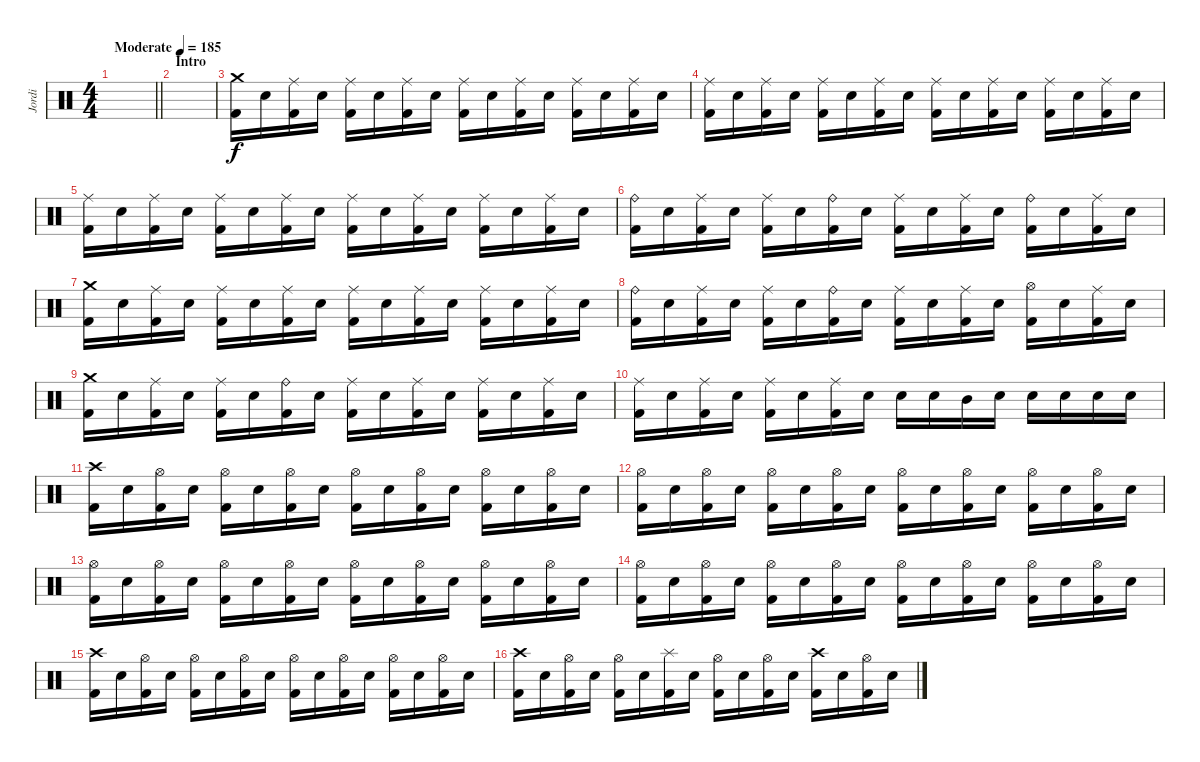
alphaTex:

\track ("Jordi" "Jordi") {instrument percussion}
\staff {score}
\articulation defaults
\ts (4 4)
\tempo (185 "Moderate")
\clef neutral
\barLineRight lightlight
\ks c
|
\section ("" "Intro ")
|
("Crash medium (hit)" "Kick (hit) 2").16 "Snare (hit) 2".16{dy f} ("Ride (middle)" "Kick (hit) 2").16 "Snare (hit) 2".16 ("Ride (middle)" "Kick (hit) 2").16 "Snare (hit) 2".16 ("Ride (middle)" "Kick (hit) 2").16 "Snare (hit) 2".16 ("Ride (middle)" "Kick (hit) 2").16 "Snare (hit) 2".16 ("Ride (middle)" "Kick (hit) 2").16 "Snare (hit) 2".16 ("Ride (middle)" "Kick (hit) 2").16 "Snare (hit) 2".16 ("Ride (middle)" "Kick (hit) 2").16 "Snare (hit) 2".16 |
("Ride (middle)" "Kick (hit) 2").16 "Snare (hit) 2".16 ("Ride (middle)" "Kick (hit) 2").16 "Snare (hit) 2".16 ("Ride (middle)" "Kick (hit) 2").16 "Snare (hit) 2".16 ("Ride (middle)" "Kick (hit) 2").16 "Snare (hit) 2".16 ("Ride (middle)" "Kick (hit) 2").16 "Snare (hit) 2".16 ("Ride (middle)" "Kick (hit) 2").16 "Snare (hit) 2".16 ("Ride (middle)" "Kick (hit) 2").16 "Snare (hit) 2".16 ("Ride (middle)" "Kick (hit) 2").16 "Snare (hit) 2".16 |
("Ride (middle)" "Kick (hit) 2").16 "Snare (hit) 2".16 ("Ride (middle)" "Kick (hit) 2").16 "Snare (hit) 2".16 ("Ride (middle)" "Kick (hit) 2").16 "Snare (hit) 2".16 ("Ride (middle)" "Kick (hit) 2").16 "Snare (hit) 2".16 ("Ride (middle)" "Kick (hit) 2").16 "Snare (hit) 2".16 ("Ride (middle)" "Kick (hit) 2").16 "Snare (hit) 2".16 ("Ride (middle)" "Kick (hit) 2").16 "Snare (hit) 2".16 ("Ride (middle)" "Kick (hit) 2").16 "Snare (hit) 2".16 |
("Ride (bell)" "Kick (hit) 2").16 "Snare (hit) 2".16 ("Ride (middle)" "Kick (hit) 2").16 "Snare (hit) 2".16 ("Ride (middle)" "Kick (hit) 2").16 "Snare (hit) 2".16 ("Ride (bell)" "Kick (hit) 2").16 "Snare (hit) 2".16 ("Ride (middle)" "Kick (hit) 2").16 "Snare (hit) 2".16 ("Ride (middle)" "Kick (hit) 2").16 "Snare (hit) 2".16 ("Ride (bell)" "Kick (hit) 2").16 "Snare (hit) 2".16 ("Ride (middle)" "Kick (hit) 2").16 "Snare (hit) 2".16 |
("Crash medium (hit)" "Kick (hit) 2").16 "Snare (hit) 2".16 ("Ride (middle)" "Kick (hit) 2").16 "Snare (hit) 2".16 ("Ride (middle)" "Kick (hit) 2").16 "Snare (hit) 2".16 ("Ride (middle)" "Kick (hit) 2").16 "Snare (hit) 2".16 ("Ride (middle)" "Kick (hit) 2").16 "Snare (hit) 2".16 ("Ride (middle)" "Kick (hit) 2").16 "Snare (hit) 2".16 ("Ride (middle)" "Kick (hit) 2").16 "Snare (hit) 2".16 ("Ride (middle)" "Kick (hit) 2").16 "Snare (hit) 2".16 |
("Ride (bell)" "Kick (hit) 2").16 "Snare (hit) 2".16 ("Ride (middle)" "Kick (hit) 2").16 "Snare (hit) 2".16 ("Ride (middle)" "Kick (hit) 2").16 "Snare (hit) 2".16 ("Ride (bell)" "Kick (hit) 2").16 "Snare (hit) 2".16 ("Ride (middle)" "Kick (hit) 2").16 "Snare (hit) 2".16 ("Ride (middle)" "Kick (hit) 2").16 "Snare (hit) 2".16 ("Hi-Hat (open)" "Kick (hit) 2").16 "Snare (hit) 2".16 ("Ride (middle)" "Kick (hit) 2").16 "Snare (hit) 2".16 |
("Crash medium (hit)" "Kick (hit) 2").16 "Snare (hit) 2".16 ("Ride (middle)" "Kick (hit) 2").16 "Snare (hit) 2".16 ("Ride (middle)" "Kick (hit) 2").16 "Snare (hit) 2".16 ("Ride (bell)" "Kick (hit) 2").16 "Snare (hit) 2".16 ("Ride (middle)" "Kick (hit) 2").16 "Snare (hit) 2".16 ("Ride (middle)" "Kick (hit) 2").16 "Snare (hit) 2".16 ("Ride (middle)" "Kick (hit) 2").16 "Snare (hit) 2".16 ("Ride (middle)" "Kick (hit) 2").16 "Snare (hit) 2".16 |
("Ride (middle)" "Kick (hit) 2").16 "Snare (hit) 2".16 ("Ride (middle)" "Kick (hit) 2").16 "Snare (hit) 2".16 ("Ride (middle)" "Kick (hit) 2").16 "Snare (hit) 2".16 ("Ride (middle)" "Kick (hit) 2").16 "Snare (hit) 2".16 "Snare (hit) 2".16 "Snare (hit) 2".16 "Mid Tom (hit)".16 "Snare (hit) 2".16 "Snare (hit) 2".16 "Snare (hit) 2".16 "Snare (hit) 2".16 "Snare (hit) 2".16 |
("Crash high (hit)" "Kick (hit) 2").16 "Snare (hit) 2".16 ("Hi-Hat (open)" "Kick (hit) 2").16 "Snare (hit) 2".16 ("Hi-Hat (open)" "Kick (hit) 2").16 "Snare (hit) 2".16 ("Hi-Hat (open)" "Kick (hit) 2").16 "Snare (hit) 2".16 ("Hi-Hat (open)" "Kick (hit) 2").16 "Snare (hit) 2".16 ("Hi-Hat (open)" "Kick (hit) 2").16 "Snare (hit) 2".16 ("Hi-Hat (open)" "Kick (hit) 2").16 "Snare (hit) 2".16 ("Hi-Hat (open)" "Kick (hit) 2").16 "Snare (hit) 2".16 |
("Hi-Hat (open)" "Kick (hit) 2").16 "Snare (hit) 2".16 ("Hi-Hat (open)" "Kick (hit) 2").16 "Snare (hit) 2".16 ("Hi-Hat (open)" "Kick (hit) 2").16 "Snare (hit) 2".16 ("Hi-Hat (open)" "Kick (hit) 2").16 "Snare (hit) 2".16 ("Hi-Hat (open)" "Kick (hit) 2").16 "Snare (hit) 2".16 ("Hi-Hat (open)" "Kick (hit) 2").16 "Snare (hit) 2".16 ("Hi-Hat (open)" "Kick (hit) 2").16 "Snare (hit) 2".16 ("Hi-Hat (open)" "Kick (hit) 2").16 "Snare (hit) 2".16 |
("Hi-Hat (open)" "Kick (hit) 2").16 "Snare (hit) 2".16 ("Hi-Hat (open)" "Kick (hit) 2").16 "Snare (hit) 2".16 ("Hi-Hat (open)" "Kick (hit) 2").16 "Snare (hit) 2".16 ("Hi-Hat (open)" "Kick (hit) 2").16 "Snare (hit) 2".16 ("Hi-Hat (open)" "Kick (hit) 2").16 "Snare (hit) 2".16 ("Hi-Hat (open)" "Kick (hit) 2").16 "Snare (hit) 2".16 ("Hi-Hat (open)" "Kick (hit) 2").16 "Snare (hit) 2".16 ("Hi-Hat (open)" "Kick (hit) 2").16 "Snare (hit) 2".16 |
("Hi-Hat (open)" "Kick (hit) 2").16 "Snare (hit) 2".16 ("Hi-Hat (open)" "Kick (hit) 2").16 "Snare (hit) 2".16 ("Hi-Hat (open)" "Kick (hit) 2").16 "Snare (hit) 2".16 ("Hi-Hat (open)" "Kick (hit) 2").16 "Snare (hit) 2".16 ("Hi-Hat (open)" "Kick (hit) 2").16 "Snare (hit) 2".16 ("Hi-Hat (open)" "Kick (hit) 2").16 "Snare (hit) 2".16 ("Hi-Hat (open)" "Kick (hit) 2").16 "Snare (hit) 2".16 ("Hi-Hat (open)" "Kick (hit) 2").16 "Snare (hit) 2".16 |
("Crash high (hit)" "Kick (hit) 2").16 "Snare (hit) 2".16 ("Hi-Hat (open)" "Kick (hit) 2").16 "Snare (hit) 2".16 ("Hi-Hat (open)" "Kick (hit) 2").16 "Snare (hit) 2".16 ("Hi-Hat (open)" "Kick (hit) 2").16 "Snare (hit) 2".16 ("Hi-Hat (open)" "Kick (hit) 2").16 "Snare (hit) 2".16 ("Hi-Hat (open)" "Kick (hit) 2").16 "Snare (hit) 2".16 ("Hi-Hat (open)" "Kick (hit) 2").16 "Snare (hit) 2".16 ("Hi-Hat (open)" "Kick (hit) 2").16 "Snare (hit) 2".16 |
("Crash high (hit)" "Kick (hit) 2").16 "Snare (hit) 2".16 ("Hi-Hat (open)" "Kick (hit) 2").16 "Snare (hit) 2".16 ("Hi-Hat (open)" "Kick (hit) 2").16 "Snare (hit) 2".16 ("Splash (hit)" "Kick (hit) 2").16 "Snare (hit) 2".16 ("Hi-Hat (open)" "Kick (hit) 2").16 "Snare (hit) 2".16 ("Hi-Hat (open)" "Kick (hit) 2").16 "Snare (hit) 2".16 ("Crash high (hit)" "Kick (hit) 2").16 "Snare (hit) 2".16 ("Hi-Hat (open)" "Kick (hit) 2").16 "Snare (hit) 2".16
